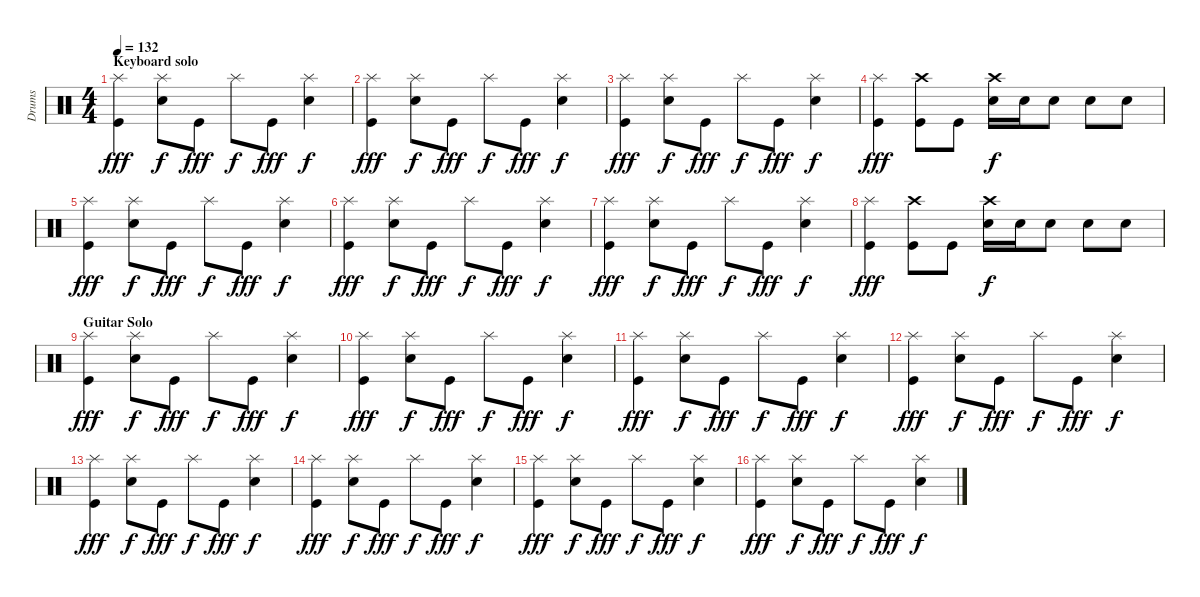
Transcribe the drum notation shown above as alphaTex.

\track ("Drums" "Drums") {instrument percussion}
\staff {score}
\articulation defaults
\ts (4 4)
\section ("" "Keyboard solo")
\tempo 132
\clef neutral
\ks c
("Splash (hit)" "Kick (hit)").4{dy fff} ("Splash (hit)" "Snare (hit) 2").8{dy f} "Kick (hit)".8{dy fff} "Splash (hit)".8{dy f} "Kick (hit)".8{dy fff} ("Splash (hit)" "Snare (hit) 2").4{dy f} |
("Splash (hit)" "Kick (hit)").4{dy fff} ("Splash (hit)" "Snare (hit) 2").8{dy f} "Kick (hit)".8{dy fff} "Splash (hit)".8{dy f} "Kick (hit)".8{dy fff} ("Splash (hit)" "Snare (hit) 2").4{dy f} |
("Splash (hit)" "Kick (hit)").4{dy fff} ("Splash (hit)" "Snare (hit) 2").8{dy f} "Kick (hit)".8{dy fff} "Splash (hit)".8{dy f} "Kick (hit)".8{dy fff} ("Splash (hit)" "Snare (hit) 2").4{dy f} |
("Splash (hit)" "Kick (hit)").4{dy fff} ("Crash high (hit)" "Kick (hit)").8 "Kick (hit)".8 ("Crash high (hit)" "Snare (hit) 2").16{dy f} "Snare (hit) 2".16 "Snare (hit) 2".8 "Snare (hit) 2".8 "Snare (hit) 2".8 |
("Splash (hit)" "Kick (hit)").4{dy fff} ("Splash (hit)" "Snare (hit) 2").8{dy f} "Kick (hit)".8{dy fff} "Splash (hit)".8{dy f} "Kick (hit)".8{dy fff} ("Splash (hit)" "Snare (hit) 2").4{dy f} |
("Splash (hit)" "Kick (hit)").4{dy fff} ("Splash (hit)" "Snare (hit) 2").8{dy f} "Kick (hit)".8{dy fff} "Splash (hit)".8{dy f} "Kick (hit)".8{dy fff} ("Splash (hit)" "Snare (hit) 2").4{dy f} |
("Splash (hit)" "Kick (hit)").4{dy fff} ("Splash (hit)" "Snare (hit) 2").8{dy f} "Kick (hit)".8{dy fff} "Splash (hit)".8{dy f} "Kick (hit)".8{dy fff} ("Splash (hit)" "Snare (hit) 2").4{dy f} |
("Splash (hit)" "Kick (hit)").4{dy fff} ("Crash high (hit)" "Kick (hit)").8 "Kick (hit)".8 ("Crash high (hit)" "Snare (hit) 2").16{dy f} "Snare (hit) 2".16 "Snare (hit) 2".8 "Snare (hit) 2".8 "Snare (hit) 2".8 |
\section ("" "Guitar Solo")
("Splash (hit)" "Kick (hit)").4{dy fff} ("Splash (hit)" "Snare (hit) 2").8{dy f} "Kick (hit)".8{dy fff} "Splash (hit)".8{dy f} "Kick (hit)".8{dy fff} ("Splash (hit)" "Snare (hit) 2").4{dy f} |
("Splash (hit)" "Kick (hit)").4{dy fff} ("Splash (hit)" "Snare (hit) 2").8{dy f} "Kick (hit)".8{dy fff} "Splash (hit)".8{dy f} "Kick (hit)".8{dy fff} ("Splash (hit)" "Snare (hit) 2").4{dy f} |
("Splash (hit)" "Kick (hit)").4{dy fff} ("Splash (hit)" "Snare (hit) 2").8{dy f} "Kick (hit)".8{dy fff} "Splash (hit)".8{dy f} "Kick (hit)".8{dy fff} ("Splash (hit)" "Snare (hit) 2").4{dy f} |
("Splash (hit)" "Kick (hit)").4{dy fff} ("Splash (hit)" "Snare (hit) 2").8{dy f} "Kick (hit)".8{dy fff} "Splash (hit)".8{dy f} "Kick (hit)".8{dy fff} ("Splash (hit)" "Snare (hit) 2").4{dy f} |
("Splash (hit)" "Kick (hit)").4{dy fff} ("Splash (hit)" "Snare (hit) 2").8{dy f} "Kick (hit)".8{dy fff} "Splash (hit)".8{dy f} "Kick (hit)".8{dy fff} ("Splash (hit)" "Snare (hit) 2").4{dy f} |
("Splash (hit)" "Kick (hit)").4{dy fff} ("Splash (hit)" "Snare (hit) 2").8{dy f} "Kick (hit)".8{dy fff} "Splash (hit)".8{dy f} "Kick (hit)".8{dy fff} ("Splash (hit)" "Snare (hit) 2").4{dy f} |
("Splash (hit)" "Kick (hit)").4{dy fff} ("Splash (hit)" "Snare (hit) 2").8{dy f} "Kick (hit)".8{dy fff} "Splash (hit)".8{dy f} "Kick (hit)".8{dy fff} ("Splash (hit)" "Snare (hit) 2").4{dy f} |
("Splash (hit)" "Kick (hit)").4{dy fff} ("Splash (hit)" "Snare (hit) 2").8{dy f} "Kick (hit)".8{dy fff} "Splash (hit)".8{dy f} "Kick (hit)".8{dy fff} ("Splash (hit)" "Snare (hit) 2").4{dy f}
